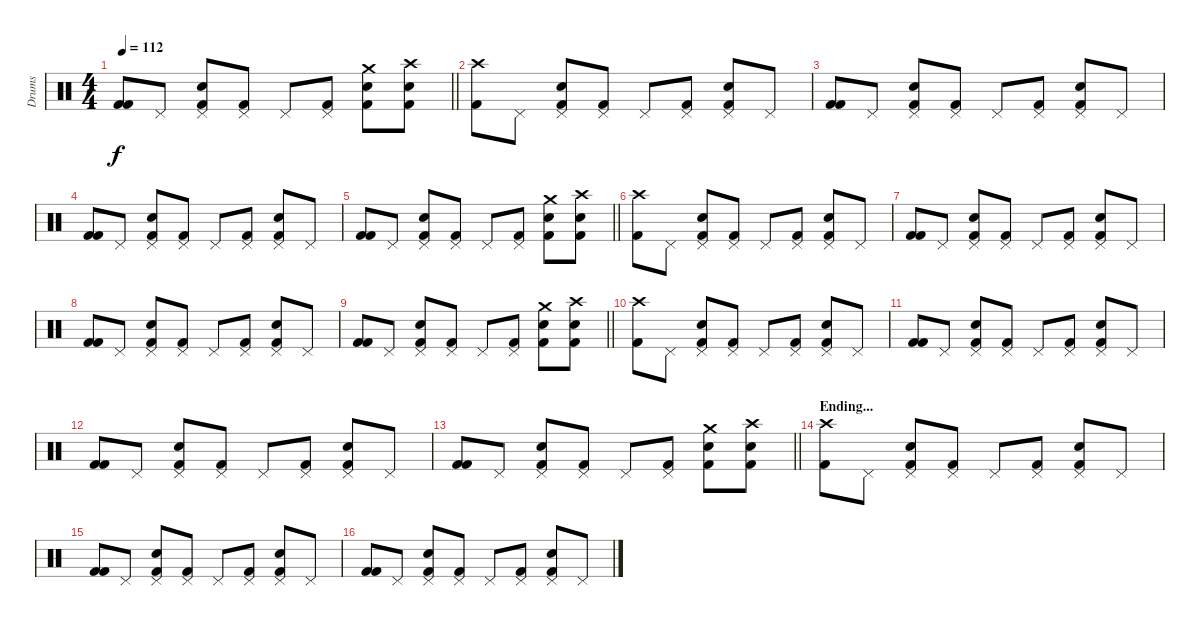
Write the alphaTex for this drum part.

\track ("Drums" "Drums") {instrument percussion}
\staff {score}
\articulation defaults
\ts (4 4)
\tempo 112
\clef neutral
\barLineRight lightlight
\ks c
("Kick (hit) 2" "Kick (hit) 2").8{dy f} "Pedal Hi-Hat (hit)".8 ("Pedal Hi-Hat (hit)" "Snare (hit) 2" "Kick (hit) 2").8 ("Pedal Hi-Hat (hit)" "Kick (hit) 2").8 "Pedal Hi-Hat (hit)".8 ("Pedal Hi-Hat (hit)" "Kick (hit) 2").8 ("Kick (hit) 2" "Snare (hit) 2" "Crash medium (hit)").8 ("Kick (hit) 2" "Snare (hit) 2" "Crash high (hit)").8 |
("Kick (hit) 2" "Crash high (hit)").8 "Pedal Hi-Hat (hit)".8 ("Pedal Hi-Hat (hit)" "Snare (hit) 2" "Kick (hit) 2").8 ("Pedal Hi-Hat (hit)" "Kick (hit) 2").8 "Pedal Hi-Hat (hit)".8 ("Pedal Hi-Hat (hit)" "Kick (hit) 2").8 ("Pedal Hi-Hat (hit)" "Snare (hit) 2" "Kick (hit) 2").8 "Pedal Hi-Hat (hit)".8 |
("Kick (hit) 2" "Kick (hit) 2").8 "Pedal Hi-Hat (hit)".8 ("Pedal Hi-Hat (hit)" "Snare (hit) 2" "Kick (hit) 2").8 ("Pedal Hi-Hat (hit)" "Kick (hit) 2").8 "Pedal Hi-Hat (hit)".8 ("Pedal Hi-Hat (hit)" "Kick (hit) 2").8 ("Pedal Hi-Hat (hit)" "Snare (hit) 2" "Kick (hit) 2").8 "Pedal Hi-Hat (hit)".8 |
("Kick (hit) 2" "Kick (hit) 2").8 "Pedal Hi-Hat (hit)".8 ("Pedal Hi-Hat (hit)" "Snare (hit) 2" "Kick (hit) 2").8 ("Pedal Hi-Hat (hit)" "Kick (hit) 2").8 "Pedal Hi-Hat (hit)".8 ("Pedal Hi-Hat (hit)" "Kick (hit) 2").8 ("Pedal Hi-Hat (hit)" "Snare (hit) 2" "Kick (hit) 2").8 "Pedal Hi-Hat (hit)".8 |
\barLineRight lightlight
("Kick (hit) 2" "Kick (hit) 2").8 "Pedal Hi-Hat (hit)".8 ("Pedal Hi-Hat (hit)" "Snare (hit) 2" "Kick (hit) 2").8 ("Pedal Hi-Hat (hit)" "Kick (hit) 2").8 "Pedal Hi-Hat (hit)".8 ("Pedal Hi-Hat (hit)" "Kick (hit) 2").8 ("Kick (hit) 2" "Snare (hit) 2" "Crash medium (hit)").8 ("Kick (hit) 2" "Snare (hit) 2" "Crash high (hit)").8 |
("Kick (hit) 2" "Crash high (hit)").8 "Pedal Hi-Hat (hit)".8 ("Pedal Hi-Hat (hit)" "Snare (hit) 2" "Kick (hit) 2").8 ("Pedal Hi-Hat (hit)" "Kick (hit) 2").8 "Pedal Hi-Hat (hit)".8 ("Pedal Hi-Hat (hit)" "Kick (hit) 2").8 ("Pedal Hi-Hat (hit)" "Snare (hit) 2" "Kick (hit) 2").8 "Pedal Hi-Hat (hit)".8 |
("Kick (hit) 2" "Kick (hit) 2").8 "Pedal Hi-Hat (hit)".8 ("Pedal Hi-Hat (hit)" "Snare (hit) 2" "Kick (hit) 2").8 ("Pedal Hi-Hat (hit)" "Kick (hit) 2").8 "Pedal Hi-Hat (hit)".8 ("Pedal Hi-Hat (hit)" "Kick (hit) 2").8 ("Pedal Hi-Hat (hit)" "Snare (hit) 2" "Kick (hit) 2").8 "Pedal Hi-Hat (hit)".8 |
("Kick (hit) 2" "Kick (hit) 2").8 "Pedal Hi-Hat (hit)".8 ("Pedal Hi-Hat (hit)" "Snare (hit) 2" "Kick (hit) 2").8 ("Pedal Hi-Hat (hit)" "Kick (hit) 2").8 "Pedal Hi-Hat (hit)".8 ("Pedal Hi-Hat (hit)" "Kick (hit) 2").8 ("Pedal Hi-Hat (hit)" "Snare (hit) 2" "Kick (hit) 2").8 "Pedal Hi-Hat (hit)".8 |
\barLineRight lightlight
("Kick (hit) 2" "Kick (hit) 2").8 "Pedal Hi-Hat (hit)".8 ("Pedal Hi-Hat (hit)" "Snare (hit) 2" "Kick (hit) 2").8 ("Pedal Hi-Hat (hit)" "Kick (hit) 2").8 "Pedal Hi-Hat (hit)".8 ("Pedal Hi-Hat (hit)" "Kick (hit) 2").8 ("Kick (hit) 2" "Snare (hit) 2" "Crash medium (hit)").8 ("Kick (hit) 2" "Snare (hit) 2" "Crash high (hit)").8 |
("Kick (hit) 2" "Crash high (hit)").8 "Pedal Hi-Hat (hit)".8 ("Pedal Hi-Hat (hit)" "Snare (hit) 2" "Kick (hit) 2").8 ("Pedal Hi-Hat (hit)" "Kick (hit) 2").8 "Pedal Hi-Hat (hit)".8 ("Pedal Hi-Hat (hit)" "Kick (hit) 2").8 ("Pedal Hi-Hat (hit)" "Snare (hit) 2" "Kick (hit) 2").8 "Pedal Hi-Hat (hit)".8 |
("Kick (hit) 2" "Kick (hit) 2").8 "Pedal Hi-Hat (hit)".8 ("Pedal Hi-Hat (hit)" "Snare (hit) 2" "Kick (hit) 2").8 ("Pedal Hi-Hat (hit)" "Kick (hit) 2").8 "Pedal Hi-Hat (hit)".8 ("Pedal Hi-Hat (hit)" "Kick (hit) 2").8 ("Pedal Hi-Hat (hit)" "Snare (hit) 2" "Kick (hit) 2").8 "Pedal Hi-Hat (hit)".8 |
("Kick (hit) 2" "Kick (hit) 2").8 "Pedal Hi-Hat (hit)".8 ("Pedal Hi-Hat (hit)" "Snare (hit) 2" "Kick (hit) 2").8 ("Pedal Hi-Hat (hit)" "Kick (hit) 2").8 "Pedal Hi-Hat (hit)".8 ("Pedal Hi-Hat (hit)" "Kick (hit) 2").8 ("Pedal Hi-Hat (hit)" "Snare (hit) 2" "Kick (hit) 2").8 "Pedal Hi-Hat (hit)".8 |
\barLineRight lightlight
("Kick (hit) 2" "Kick (hit) 2").8 "Pedal Hi-Hat (hit)".8 ("Pedal Hi-Hat (hit)" "Snare (hit) 2" "Kick (hit) 2").8 ("Pedal Hi-Hat (hit)" "Kick (hit) 2").8 "Pedal Hi-Hat (hit)".8 ("Pedal Hi-Hat (hit)" "Kick (hit) 2").8 ("Kick (hit) 2" "Snare (hit) 2" "Crash medium (hit)").8 ("Kick (hit) 2" "Snare (hit) 2" "Crash high (hit)").8 |
\section ("" "Ending...")
("Kick (hit) 2" "Crash high (hit)").8 "Pedal Hi-Hat (hit)".8 ("Pedal Hi-Hat (hit)" "Snare (hit) 2" "Kick (hit) 2").8 ("Pedal Hi-Hat (hit)" "Kick (hit) 2").8 "Pedal Hi-Hat (hit)".8 ("Pedal Hi-Hat (hit)" "Kick (hit) 2").8 ("Pedal Hi-Hat (hit)" "Snare (hit) 2" "Kick (hit) 2").8 "Pedal Hi-Hat (hit)".8 |
("Kick (hit) 2" "Kick (hit) 2").8 "Pedal Hi-Hat (hit)".8 ("Pedal Hi-Hat (hit)" "Snare (hit) 2" "Kick (hit) 2").8 ("Pedal Hi-Hat (hit)" "Kick (hit) 2").8 "Pedal Hi-Hat (hit)".8 ("Pedal Hi-Hat (hit)" "Kick (hit) 2").8 ("Pedal Hi-Hat (hit)" "Snare (hit) 2" "Kick (hit) 2").8 "Pedal Hi-Hat (hit)".8 |
("Kick (hit) 2" "Kick (hit) 2").8 "Pedal Hi-Hat (hit)".8 ("Pedal Hi-Hat (hit)" "Snare (hit) 2" "Kick (hit) 2").8 ("Pedal Hi-Hat (hit)" "Kick (hit) 2").8 "Pedal Hi-Hat (hit)".8 ("Pedal Hi-Hat (hit)" "Kick (hit) 2").8 ("Pedal Hi-Hat (hit)" "Snare (hit) 2" "Kick (hit) 2").8 "Pedal Hi-Hat (hit)".8
